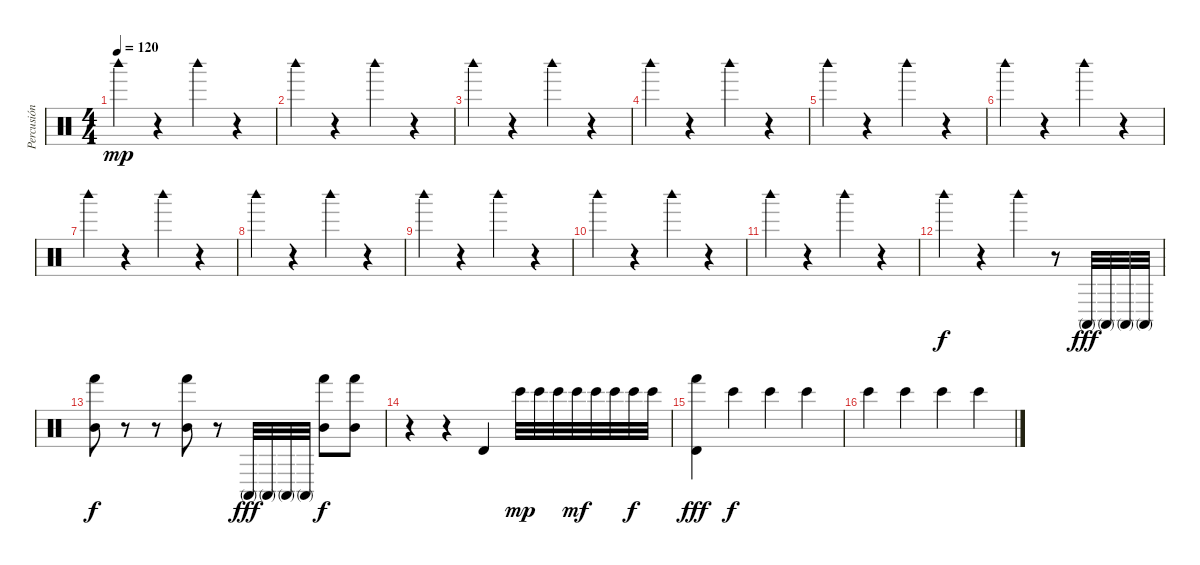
\track ("Percusión" "Percusión") {instrument percussion}
\staff {score}
\articulation defaults
\ts (4 4)
\tempo 120
\clef neutral
\ks c "Woodblock high (hit)".4{dy mp}
r.4 "Woodblock high (hit)".4 r.4 |
"Woodblock high (hit)".4 r.4 "Woodblock high (hit)".4 r.4 |
"Woodblock high (hit)".4 r.4 "Woodblock high (hit)".4 r.4 |
"Woodblock high (hit)".4 r.4 "Woodblock high (hit)".4 r.4 |
"Woodblock high (hit)".4 r.4 "Woodblock high (hit)".4 r.4 |
"Woodblock high (hit)".4 r.4 "Woodblock high (hit)".4 r.4 |
"Woodblock high (hit)".4 r.4 "Woodblock high (hit)".4 r.4 |
"Woodblock high (hit)".4 r.4 "Woodblock high (hit)".4 r.4 |
"Woodblock high (hit)".4 r.4 "Woodblock high (hit)".4 r.4 |
"Woodblock high (hit)".4 r.4 "Woodblock high (hit)".4 r.4 |
"Woodblock high (hit)".4 r.4 "Woodblock high (hit)".4 r.4 |
"Woodblock high (hit)".4{dy f} r.4 "Woodblock high (hit)".4 r.8 "Conga high (mute)".32{dy fff} "Conga high (mute)".32 "Conga high (mute)".32 "Conga high (mute)".32 |
("Mid Tom (hit)" "Hand (hit)").8{dy f} r.8 r.8 ("Mid Tom (hit)" "Hand (hit)").8 r.8 "Conga high (mute)".32{dy fff} "Conga high (mute)".32 "Conga high (mute)".32 "Conga high (mute)".32 ("Mid Tom (hit)" "Hand (hit)").8{dy f} ("Mid Tom (hit)" "Hand (hit)").8 |
r.4 r.4 "Timbale high (hit)".4 "Bongo High (hit)".32{dy mp} "Bongo High (hit)".32 "Bongo High (hit)".32 "Bongo High (hit)".32{dy mf} "Bongo High (hit)".32 "Bongo High (hit)".32 "Bongo High (hit)".32{dy f} "Bongo High (hit)".32 |
("Timbale high (hit)" "Hand (hit)").4{dy fff} "Bongo High (hit)".4{dy f} "Bongo High (hit)".4 "Bongo High (hit)".4 |
"Bongo High (hit)".4 "Bongo High (hit)".4 "Bongo High (hit)".4 "Bongo High (hit)".4
